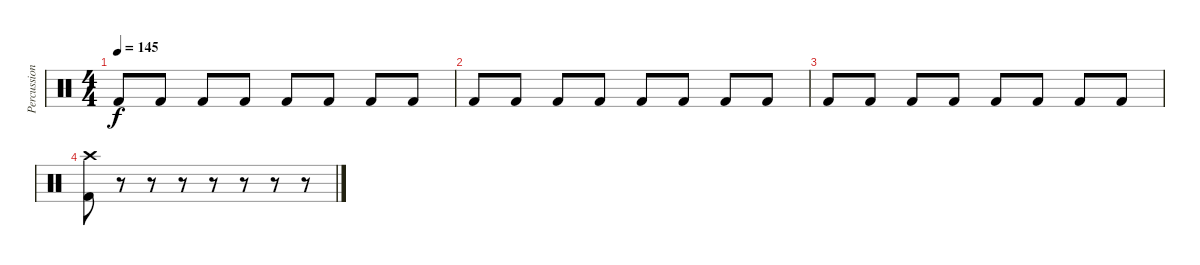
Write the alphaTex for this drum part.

\track ("Percussion" "Percussion") {instrument percussion}
\staff {score}
\articulation defaults
\ts (4 4)
\tempo 145
\clef neutral
\ks c "Kick (hit) 2".8{dy f} "Kick (hit) 2".8 "Kick (hit) 2".8 "Kick (hit) 2".8 "Kick (hit) 2".8 "Kick (hit) 2".8 "Kick (hit) 2".8 "Kick (hit) 2".8
|
"Kick (hit) 2".8 "Kick (hit) 2".8 "Kick (hit) 2".8 "Kick (hit) 2".8 "Kick (hit) 2".8 "Kick (hit) 2".8 "Kick (hit) 2".8 "Kick (hit) 2".8 |
"Kick (hit) 2".8 "Kick (hit) 2".8 "Kick (hit) 2".8 "Kick (hit) 2".8 "Kick (hit) 2".8 "Kick (hit) 2".8 "Kick (hit) 2".8 "Kick (hit) 2".8 |
("Crash high (hit)" "Kick (hit) 2").8 r.8 r.8 r.8 r.8 r.8 r.8 r.8
